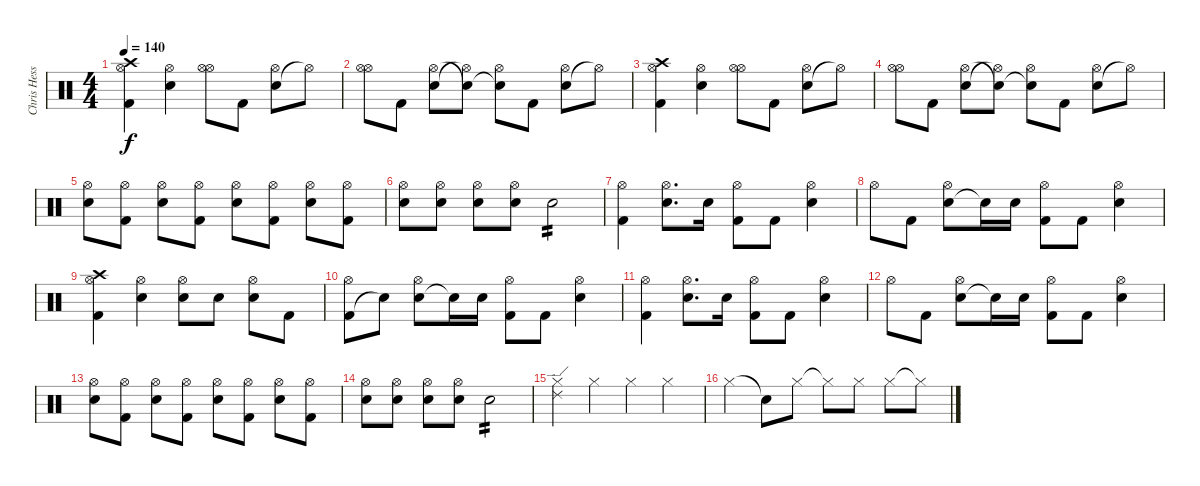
\track ("Chris Hesse" "Chris Hess") {instrument percussion}
\staff {score}
\articulation defaults
\ts (4 4)
\tempo 140
\clef neutral
\ks c
("Kick (hit) 2" "Hi-Hat (open)" "Crash high (hit)").4{dy f} ("Electric Snare (hit)" "Hi-Hat (open)").4 ("Hi-Hat (open)" "Hi-Hat (open)").8 "Kick (hit) 2".8 ("Electric Snare (hit)" "Hi-Hat (open)").8 "Hi-Hat (open)"{t}.8 |
("Hi-Hat (open)" "Hi-Hat (open)").8 "Kick (hit) 2".8 ("Electric Snare (hit)" "Hi-Hat (open)").8 ("Hi-Hat (open)"{t} "Snare (hit)"{t}).8 ("Hi-Hat (open)" "Snare (hit)"{t}).8 "Kick (hit) 2".8 ("Electric Snare (hit)" "Hi-Hat (open)").8 "Hi-Hat (open)"{t}.8 |
("Kick (hit) 2" "Hi-Hat (open)" "Crash high (hit)").4 ("Electric Snare (hit)" "Hi-Hat (open)").4 ("Hi-Hat (open)" "Hi-Hat (open)").8 "Kick (hit) 2".8 ("Electric Snare (hit)" "Hi-Hat (open)").8 "Hi-Hat (open)"{t}.8 |
("Hi-Hat (open)" "Hi-Hat (open)").8 "Kick (hit) 2".8 ("Electric Snare (hit)" "Hi-Hat (open)").8 ("Hi-Hat (open)"{t} "Snare (hit)"{t}).8 ("Hi-Hat (open)" "Snare (hit)"{t}).8 "Kick (hit) 2".8 ("Electric Snare (hit)" "Hi-Hat (open)").8 "Hi-Hat (open)"{t}.8 |
("Electric Snare (hit)" "Hi-Hat (open)").8 ("Kick (hit) 2" "Hi-Hat (open)").8 ("Electric Snare (hit)" "Hi-Hat (open)").8 ("Kick (hit) 2" "Hi-Hat (open)").8 ("Electric Snare (hit)" "Hi-Hat (open)").8 ("Kick (hit) 2" "Hi-Hat (open)").8 ("Electric Snare (hit)" "Hi-Hat (open)").8 ("Kick (hit) 2" "Hi-Hat (open)").8 |
("Electric Snare (hit)" "Hi-Hat (open)").8 ("Electric Snare (hit)" "Hi-Hat (open)").8 ("Electric Snare (hit)" "Hi-Hat (open)").8 ("Electric Snare (hit)" "Hi-Hat (open)").8 "Electric Snare (hit)".2{tp 2} |
("Kick (hit) 2" "Hi-Hat (open)").4 ("Electric Snare (hit)" "Hi-Hat (open)").8{d} "Electric Snare (hit)".16 ("Kick (hit) 2" "Hi-Hat (open)").8 "Kick (hit) 2".8 ("Electric Snare (hit)" "Hi-Hat (open)").4 |
"Hi-Hat (open)".8 "Kick (hit) 2".8 ("Electric Snare (hit)" "Hi-Hat (open)").8 "Electric Snare (hit)"{t}.16 "Electric Snare (hit)".16 ("Kick (hit) 2" "Hi-Hat (open)").8 "Kick (hit) 2".8 ("Electric Snare (hit)" "Hi-Hat (open)").4 |
("Kick (hit) 2" "Hi-Hat (open)" "Crash high (hit)").4 ("Electric Snare (hit)" "Hi-Hat (open)").4 ("Electric Snare (hit)" "Hi-Hat (open)").8 "Electric Snare (hit)".8 ("Electric Snare (hit)" "Hi-Hat (open)").8 "Kick (hit) 2".8 |
("Kick (hit) 2" "Hi-Hat (open)").8 "Electric Snare (hit)"{t}.8 ("Electric Snare (hit)" "Hi-Hat (open)").8 "Snare (hit)"{t}.16 "Electric Snare (hit)".16 ("Kick (hit) 2" "Hi-Hat (open)").8 "Kick (hit) 2".8 ("Electric Snare (hit)" "Hi-Hat (open)").4 |
("Kick (hit) 2" "Hi-Hat (open)").4 ("Electric Snare (hit)" "Hi-Hat (open)").8{d} "Electric Snare (hit)".16 ("Kick (hit) 2" "Hi-Hat (open)").8 "Kick (hit) 2".8 ("Electric Snare (hit)" "Hi-Hat (open)").4 |
"Hi-Hat (open)".8 "Kick (hit) 2".8 ("Electric Snare (hit)" "Hi-Hat (open)").8 "Electric Snare (hit)"{t}.16 "Electric Snare (hit)".16 ("Kick (hit) 2" "Hi-Hat (open)").8 "Kick (hit) 2".8 ("Electric Snare (hit)" "Hi-Hat (open)").4 |
("Electric Snare (hit)" "Hi-Hat (open)").8 ("Kick (hit) 2" "Hi-Hat (open)").8 ("Electric Snare (hit)" "Hi-Hat (open)").8 ("Kick (hit) 2" "Hi-Hat (open)").8 ("Electric Snare (hit)" "Hi-Hat (open)").8 ("Kick (hit) 2" "Hi-Hat (open)").8 ("Electric Snare (hit)" "Hi-Hat (open)").8 ("Kick (hit) 2" "Hi-Hat (open)").8 |
("Electric Snare (hit)" "Hi-Hat (open)").8 ("Electric Snare (hit)" "Hi-Hat (open)").8 ("Electric Snare (hit)" "Hi-Hat (open)").8 ("Electric Snare (hit)" "Hi-Hat (open)").8 "Electric Snare (hit)".2{tp 2} |
("Hi-Hat (closed)" "Ride (edge) 2").4 "Hi-Hat (closed)".4 "Hi-Hat (closed)".4 "Hi-Hat (closed)".4 |
"Hi-Hat (closed)".4 "Snare (hit)"{t}.8 "Hi-Hat (closed)".8 "Hi-Hat (closed)"{t}.8 "Hi-Hat (closed)".8 "Hi-Hat (closed)".8 "Hi-Hat (closed)"{t}.8
